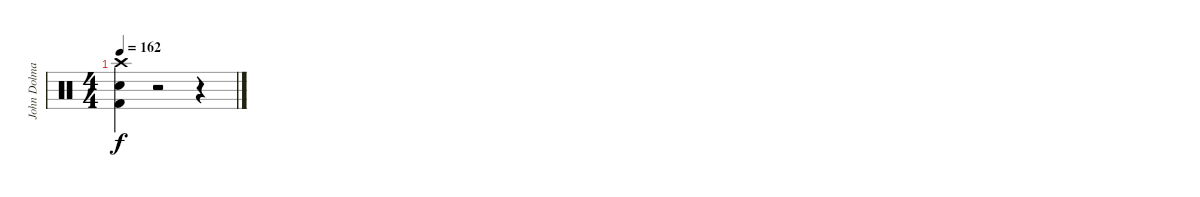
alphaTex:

\track ("John Dolmayan" "John Dolma") {instrument percussion}
\staff {score}
\articulation defaults
\ts (4 4)
\tempo 162
\clef neutral
\ks c
("Crash high (hit)" "Electric Snare (hit)" "Kick (hit) 2").4{dy f} r.2 r.4
